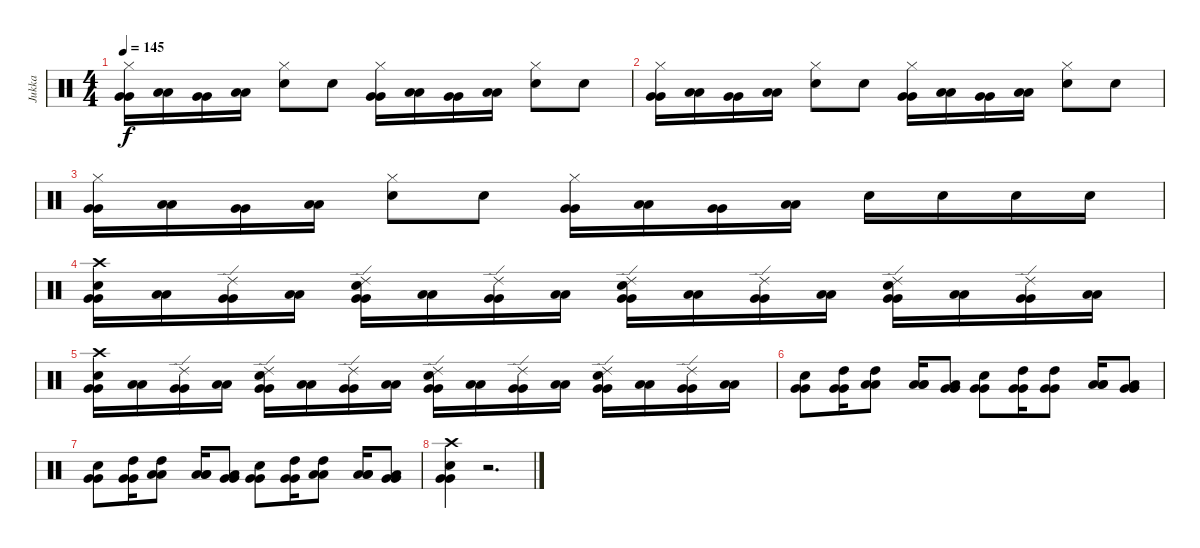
\track ("Jukka" "Jukka") {instrument percussion}
\staff {score}
\articulation defaults
\ts (4 4)
\tempo 145
\clef neutral
\ks c
("Hi-Hat (closed)" "Very Low Tom (hit)" "Very Low Tom (hit)").16{dy f} ("Low Floor Tom (hit)" "Low Floor Tom (hit)").16 ("Very Low Tom (hit)" "Very Low Tom (hit)").16 ("Low Floor Tom (hit)" "Low Floor Tom (hit)").16 ("Hi-Hat (closed)" "Electric Snare (hit)").8 "Electric Snare (hit)".8 ("Hi-Hat (closed)" "Very Low Tom (hit)" "Very Low Tom (hit)").16 ("Low Floor Tom (hit)" "Low Floor Tom (hit)").16 ("Very Low Tom (hit)" "Very Low Tom (hit)").16 ("Low Floor Tom (hit)" "Low Floor Tom (hit)").16 ("Hi-Hat (closed)" "Electric Snare (hit)").8 "Electric Snare (hit)".8 |
("Hi-Hat (closed)" "Very Low Tom (hit)" "Very Low Tom (hit)").16 ("Low Floor Tom (hit)" "Low Floor Tom (hit)").16 ("Very Low Tom (hit)" "Very Low Tom (hit)").16 ("Low Floor Tom (hit)" "Low Floor Tom (hit)").16 ("Hi-Hat (closed)" "Electric Snare (hit)").8 "Electric Snare (hit)".8 ("Hi-Hat (closed)" "Very Low Tom (hit)" "Very Low Tom (hit)").16 ("Low Floor Tom (hit)" "Low Floor Tom (hit)").16 ("Very Low Tom (hit)" "Very Low Tom (hit)").16 ("Low Floor Tom (hit)" "Low Floor Tom (hit)").16 ("Hi-Hat (closed)" "Electric Snare (hit)").8 "Electric Snare (hit)".8 |
("Hi-Hat (closed)" "Very Low Tom (hit)" "Very Low Tom (hit)").16 ("Low Floor Tom (hit)" "Low Floor Tom (hit)").16 ("Very Low Tom (hit)" "Very Low Tom (hit)").16 ("Low Floor Tom (hit)" "Low Floor Tom (hit)").16 ("Hi-Hat (closed)" "Electric Snare (hit)").8 "Electric Snare (hit)".8 ("Hi-Hat (closed)" "Very Low Tom (hit)" "Very Low Tom (hit)").16 ("Low Floor Tom (hit)" "Low Floor Tom (hit)").16 ("Very Low Tom (hit)" "Very Low Tom (hit)").16 ("Low Floor Tom (hit)" "Low Floor Tom (hit)").16 "Electric Snare (hit)".16 "Electric Snare (hit)".16 "Electric Snare (hit)".16 "Electric Snare (hit)".16 |
("Crash high (hit)" "Electric Snare (hit)" "Very Low Tom (hit)" "Very Low Tom (hit)").16 ("Low Floor Tom (hit)" "Low Floor Tom (hit)").16 ("Ride (edge) 2" "Very Low Tom (hit)" "Very Low Tom (hit)").16 ("Low Floor Tom (hit)" "Low Floor Tom (hit)").16 ("Ride (edge) 2" "Electric Snare (hit)" "Very Low Tom (hit)" "Very Low Tom (hit)").16 ("Low Floor Tom (hit)" "Low Floor Tom (hit)").16 ("Ride (edge) 2" "Very Low Tom (hit)" "Very Low Tom (hit)").16 ("Low Floor Tom (hit)" "Low Floor Tom (hit)").16 ("Ride (edge) 2" "Electric Snare (hit)" "Very Low Tom (hit)" "Very Low Tom (hit)").16 ("Low Floor Tom (hit)" "Low Floor Tom (hit)").16 ("Ride (edge) 2" "Very Low Tom (hit)" "Very Low Tom (hit)").16 ("Low Floor Tom (hit)" "Low Floor Tom (hit)").16 ("Ride (edge) 2" "Electric Snare (hit)" "Very Low Tom (hit)" "Very Low Tom (hit)").16 ("Low Floor Tom (hit)" "Low Floor Tom (hit)").16 ("Ride (edge) 2" "Very Low Tom (hit)" "Very Low Tom (hit)").16 ("Low Floor Tom (hit)" "Low Floor Tom (hit)").16 |
("Crash high (hit)" "Electric Snare (hit)" "Very Low Tom (hit)" "Very Low Tom (hit)").16 ("Low Floor Tom (hit)" "Low Floor Tom (hit)").16 ("Ride (edge) 2" "Very Low Tom (hit)" "Very Low Tom (hit)").16 ("Low Floor Tom (hit)" "Low Floor Tom (hit)").16 ("Ride (edge) 2" "Electric Snare (hit)" "Very Low Tom (hit)" "Very Low Tom (hit)").16 ("Low Floor Tom (hit)" "Low Floor Tom (hit)").16 ("Ride (edge) 2" "Very Low Tom (hit)" "Very Low Tom (hit)").16 ("Low Floor Tom (hit)" "Low Floor Tom (hit)").16 ("Ride (edge) 2" "Electric Snare (hit)" "Very Low Tom (hit)" "Very Low Tom (hit)").16 ("Low Floor Tom (hit)" "Low Floor Tom (hit)").16 ("Ride (edge) 2" "Very Low Tom (hit)" "Very Low Tom (hit)").16 ("Low Floor Tom (hit)" "Low Floor Tom (hit)").16 ("Ride (edge) 2" "Electric Snare (hit)" "Very Low Tom (hit)" "Very Low Tom (hit)").16 ("Low Floor Tom (hit)" "Low Floor Tom (hit)").16 ("Ride (edge) 2" "Very Low Tom (hit)" "Very Low Tom (hit)").16 ("Low Floor Tom (hit)" "Low Floor Tom (hit)").16 |
("Electric Snare (hit)" "Very Low Tom (hit)" "Very Low Tom (hit)").8 ("High Tom (hit)" "Very Low Tom (hit)" "Very Low Tom (hit)").16 ("High Tom (hit)" "Low Floor Tom (hit)" "Low Floor Tom (hit)").8 ("Low Tom (hit)" "Low Floor Tom (hit)" "Low Floor Tom (hit)").16 ("Low Tom (hit)" "Very Low Tom (hit)" "Very Low Tom (hit)").8 ("Electric Snare (hit)" "Very Low Tom (hit)" "Very Low Tom (hit)").8 ("High Tom (hit)" "Very Low Tom (hit)" "Very Low Tom (hit)").16 ("High Tom (hit)" "Very Low Tom (hit)" "Very Low Tom (hit)").8 ("Low Tom (hit)" "Low Floor Tom (hit)" "Low Floor Tom (hit)").16 ("Low Tom (hit)" "Very Low Tom (hit)" "Very Low Tom (hit)").8 |
("Electric Snare (hit)" "Very Low Tom (hit)" "Very Low Tom (hit)").8 ("High Tom (hit)" "Very Low Tom (hit)" "Very Low Tom (hit)").16 ("High Tom (hit)" "Low Floor Tom (hit)" "Low Floor Tom (hit)").8 ("Low Tom (hit)" "Low Floor Tom (hit)" "Low Floor Tom (hit)").16 ("Low Tom (hit)" "Very Low Tom (hit)" "Very Low Tom (hit)").8 ("Electric Snare (hit)" "Very Low Tom (hit)" "Very Low Tom (hit)").8 ("High Tom (hit)" "Very Low Tom (hit)" "Very Low Tom (hit)").16 ("High Tom (hit)" "Low Floor Tom (hit)" "Low Floor Tom (hit)").8 ("Low Tom (hit)" "Low Floor Tom (hit)" "Low Floor Tom (hit)").16 ("Low Tom (hit)" "Very Low Tom (hit)" "Very Low Tom (hit)").8 |
("Crash high (hit)" "Electric Snare (hit)" "Very Low Tom (hit)" "Very Low Tom (hit)").4 r.2{d}
